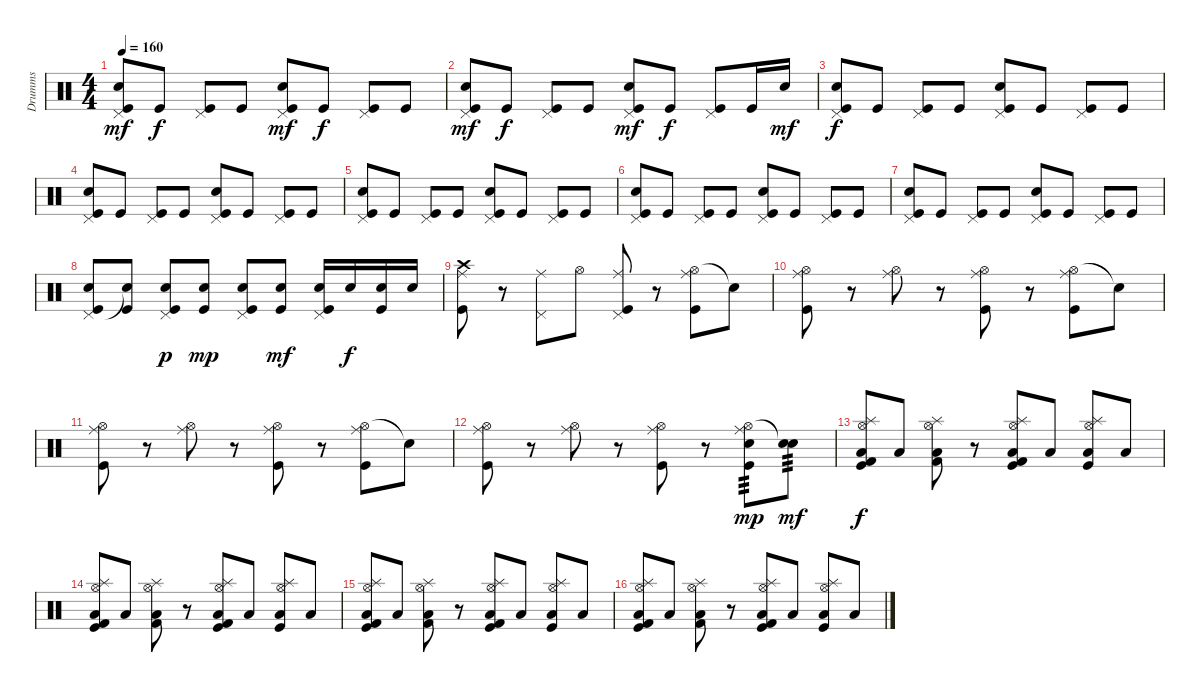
\track ("Drumms" "Drumms") {instrument percussion}
\staff {score}
\articulation defaults
\ts (4 4)
\tempo 160
\clef neutral
\ks c
("Pedal Hi-Hat (hit)" "Snare (hit) 2" "Kick (hit)").8{dy mf} "Kick (hit)".8{dy f} ("Pedal Hi-Hat (hit)" "Kick (hit)").8 "Kick (hit)".8 ("Pedal Hi-Hat (hit)" "Snare (hit) 2" "Kick (hit)").8{dy mf} "Kick (hit)".8{dy f} ("Pedal Hi-Hat (hit)" "Kick (hit)").8 "Kick (hit)".8 |
("Pedal Hi-Hat (hit)" "Snare (hit) 2" "Kick (hit)").8{dy mf} "Kick (hit)".8{dy f} ("Pedal Hi-Hat (hit)" "Kick (hit)").8 "Kick (hit)".8 ("Pedal Hi-Hat (hit)" "Snare (hit) 2" "Kick (hit)").8{dy mf} "Kick (hit)".8{dy f} ("Pedal Hi-Hat (hit)" "Kick (hit)").8 "Kick (hit)".16 "Snare (hit) 2".16{dy mf} |
("Pedal Hi-Hat (hit)" "Snare (hit) 2" "Kick (hit)").8{dy f} "Kick (hit)".8 ("Pedal Hi-Hat (hit)" "Kick (hit)").8 "Kick (hit)".8 ("Pedal Hi-Hat (hit)" "Snare (hit) 2" "Kick (hit)").8 "Kick (hit)".8 ("Pedal Hi-Hat (hit)" "Kick (hit)").8 "Kick (hit)".8 |
("Pedal Hi-Hat (hit)" "Snare (hit) 2" "Kick (hit)").8 "Kick (hit)".8 ("Pedal Hi-Hat (hit)" "Kick (hit)").8 "Kick (hit)".8 ("Pedal Hi-Hat (hit)" "Snare (hit) 2" "Kick (hit)").8 "Kick (hit)".8 ("Pedal Hi-Hat (hit)" "Kick (hit)").8 "Kick (hit)".8 |
("Pedal Hi-Hat (hit)" "Snare (hit) 2" "Kick (hit)").8 "Kick (hit)".8 ("Pedal Hi-Hat (hit)" "Kick (hit)").8 "Kick (hit)".8 ("Pedal Hi-Hat (hit)" "Snare (hit) 2" "Kick (hit)").8 "Kick (hit)".8 ("Pedal Hi-Hat (hit)" "Kick (hit)").8 "Kick (hit)".8 |
("Pedal Hi-Hat (hit)" "Snare (hit) 2" "Kick (hit)").8 "Kick (hit)".8 ("Pedal Hi-Hat (hit)" "Kick (hit)").8 "Kick (hit)".8 ("Pedal Hi-Hat (hit)" "Snare (hit) 2" "Kick (hit)").8 "Kick (hit)".8 ("Pedal Hi-Hat (hit)" "Kick (hit)").8 "Kick (hit)".8 |
("Pedal Hi-Hat (hit)" "Snare (hit) 2" "Kick (hit)").8 "Kick (hit)".8 ("Pedal Hi-Hat (hit)" "Kick (hit)").8 "Kick (hit)".8 ("Pedal Hi-Hat (hit)" "Snare (hit) 2" "Kick (hit)").8 "Kick (hit)".8 ("Pedal Hi-Hat (hit)" "Kick (hit)").8 "Kick (hit)".8 |
("Pedal Hi-Hat (hit)" "Snare (hit) 2" "Kick (hit)").8 ("Snare (hit) 2"{t} "Kick (hit)").8 ("Pedal Hi-Hat (hit)" "Snare (hit) 2" "Kick (hit)").8{dy p} ("Snare (hit) 2" "Kick (hit)").8{dy mp} ("Pedal Hi-Hat (hit)" "Snare (hit) 2" "Kick (hit)").8 ("Snare (hit) 2" "Kick (hit)").8{dy mf} ("Pedal Hi-Hat (hit)" "Snare (hit) 2" "Kick (hit)").16 "Snare (hit) 2".16{dy f} ("Snare (hit) 2" "Kick (hit)").16 "Snare (hit) 2".16 |
("Crash high (hit)" "Ride (middle)" "Kick (hit)").8 r.8 ("Pedal Hi-Hat (hit)" "Ride (middle)").8 "Hi-Hat (open)".8 ("Pedal Hi-Hat (hit)" "Ride (middle)" "Kick (hit)").8 r.8 ("Hi-Hat (open)" "Ride (middle)" "Kick (hit)").8 "Snare (hit)"{t}.8 |
("Hi-Hat (open)" "Ride (middle)" "Kick (hit)").8 r.8 ("Hi-Hat (open)" "Ride (middle)").8 r.8 ("Hi-Hat (open)" "Ride (middle)" "Kick (hit)").8 r.8 ("Hi-Hat (open)" "Ride (middle)" "Kick (hit)").8 "Snare (hit)"{t}.8 |
("Hi-Hat (open)" "Ride (middle)" "Kick (hit)").8 r.8 ("Hi-Hat (open)" "Ride (middle)").8 r.8 ("Hi-Hat (open)" "Ride (middle)" "Kick (hit)").8 r.8 ("Hi-Hat (open)" "Ride (middle)" "Kick (hit)").8 "Snare (hit)"{t}.8 |
("Hi-Hat (open)" "Ride (middle)" "Kick (hit)").8 r.8 ("Hi-Hat (open)" "Ride (middle)").8 r.8 ("Hi-Hat (open)" "Ride (middle)" "Kick (hit)").8 r.8 ("Hi-Hat (open)" "Ride (middle)" "Snare (hit) 2" "Kick (hit)").8{tp 3 dy mp} ("Snare (hit)"{t} "Snare (hit) 2").8{tp 3 dy mf} |
("Hi-Hat (open)" "Splash (hit)" "Kick (hit) 2" "Low Floor Tom (hit)" "Kick (hit)").8{dy f} "Low Floor Tom (hit)".8 ("Hi-Hat (open)" "Splash (hit)" "Kick (hit) 2" "Low Floor Tom (hit)").8 r.8 ("Hi-Hat (open)" "Splash (hit)" "Kick (hit) 2" "Low Floor Tom (hit)" "Kick (hit)").8 "Low Floor Tom (hit)".8 ("Hi-Hat (open)" "Splash (hit)" "Low Floor Tom (hit)" "Kick (hit)").8 "Low Floor Tom (hit)".8 |
("Hi-Hat (open)" "Splash (hit)" "Kick (hit) 2" "Low Floor Tom (hit)" "Kick (hit)").8 "Low Floor Tom (hit)".8 ("Hi-Hat (open)" "Splash (hit)" "Kick (hit) 2" "Low Floor Tom (hit)").8 r.8 ("Hi-Hat (open)" "Splash (hit)" "Kick (hit) 2" "Low Floor Tom (hit)" "Kick (hit)").8 "Low Floor Tom (hit)".8 ("Hi-Hat (open)" "Splash (hit)" "Low Floor Tom (hit)" "Kick (hit)").8 "Low Floor Tom (hit)".8 |
("Hi-Hat (open)" "Splash (hit)" "Kick (hit) 2" "Low Floor Tom (hit)" "Kick (hit)").8 "Low Floor Tom (hit)".8 ("Hi-Hat (open)" "Splash (hit)" "Kick (hit) 2" "Low Floor Tom (hit)").8 r.8 ("Hi-Hat (open)" "Splash (hit)" "Kick (hit) 2" "Low Floor Tom (hit)" "Kick (hit)").8 "Low Floor Tom (hit)".8 ("Hi-Hat (open)" "Splash (hit)" "Low Floor Tom (hit)" "Kick (hit)").8 "Low Floor Tom (hit)".8 |
("Hi-Hat (open)" "Splash (hit)" "Kick (hit) 2" "Low Floor Tom (hit)" "Kick (hit)").8 "Low Floor Tom (hit)".8 ("Hi-Hat (open)" "Splash (hit)" "Kick (hit) 2" "Low Floor Tom (hit)").8 r.8 ("Hi-Hat (open)" "Splash (hit)" "Kick (hit) 2" "Low Floor Tom (hit)" "Kick (hit)").8 "Low Floor Tom (hit)".8 ("Hi-Hat (open)" "Splash (hit)" "Low Floor Tom (hit)" "Kick (hit)").8 "Low Floor Tom (hit)".8
